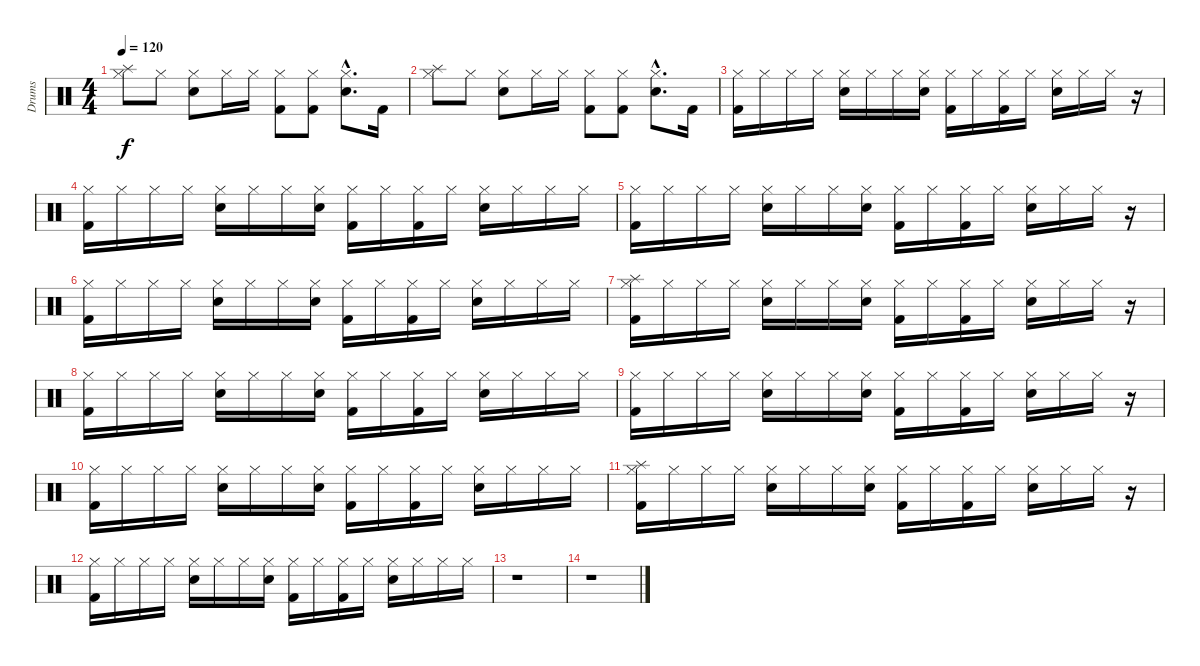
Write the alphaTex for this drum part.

\track ("Drums" "Drums") {instrument percussion}
\staff {score}
\articulation defaults
\ts (4 4)
\tempo 120
\clef neutral
\ks c
("Splash (hit)" "Hi-Hat (closed)").8{dy f} "Hi-Hat (closed)".8 ("Snare (hit) 2" "Hi-Hat (closed)").8 "Hi-Hat (closed)".16 "Hi-Hat (closed)".16 ("Kick (hit) 2" "Hi-Hat (closed)").8 ("Kick (hit) 2" "Hi-Hat (closed)").8 ("Snare (hit) 2"{hac} "Hi-Hat (closed)"{hac}).8{d} "Kick (hit) 2".16 |
("Splash (hit)" "Hi-Hat (closed)").8 "Hi-Hat (closed)".8 ("Snare (hit) 2" "Hi-Hat (closed)").8 "Hi-Hat (closed)".16 "Hi-Hat (closed)".16 ("Kick (hit) 2" "Hi-Hat (closed)").8 ("Kick (hit) 2" "Hi-Hat (closed)").8 ("Snare (hit) 2"{hac} "Hi-Hat (closed)"{hac}).8{d} "Kick (hit) 2".16 |
("Hi-Hat (closed)" "Kick (hit) 2").16 "Hi-Hat (closed)".16 "Hi-Hat (closed)".16 "Hi-Hat (closed)".16 ("Hi-Hat (closed)" "Snare (hit) 2").16 "Hi-Hat (closed)".16 "Hi-Hat (closed)".16 ("Hi-Hat (closed)" "Snare (hit) 2").16 ("Hi-Hat (closed)" "Kick (hit) 2").16 "Hi-Hat (closed)".16 ("Hi-Hat (closed)" "Kick (hit) 2").16 "Hi-Hat (closed)".16 ("Hi-Hat (closed)" "Snare (hit) 2").16 "Hi-Hat (closed)".16 "Hi-Hat (closed)".16 r.16 |
("Hi-Hat (closed)" "Kick (hit) 2").16 "Hi-Hat (closed)".16 "Hi-Hat (closed)".16 "Hi-Hat (closed)".16 ("Hi-Hat (closed)" "Snare (hit) 2").16 "Hi-Hat (closed)".16 "Hi-Hat (closed)".16 ("Hi-Hat (closed)" "Snare (hit) 2").16 ("Hi-Hat (closed)" "Kick (hit) 2").16 "Hi-Hat (closed)".16 ("Hi-Hat (closed)" "Kick (hit) 2").16 "Hi-Hat (closed)".16 ("Hi-Hat (closed)" "Snare (hit) 2").16 "Hi-Hat (closed)".16 "Hi-Hat (closed)".16 "Hi-Hat (closed)".16 |
("Hi-Hat (closed)" "Kick (hit) 2").16 "Hi-Hat (closed)".16 "Hi-Hat (closed)".16 "Hi-Hat (closed)".16 ("Hi-Hat (closed)" "Snare (hit) 2").16 "Hi-Hat (closed)".16 "Hi-Hat (closed)".16 ("Hi-Hat (closed)" "Snare (hit) 2").16 ("Hi-Hat (closed)" "Kick (hit) 2").16 "Hi-Hat (closed)".16 ("Hi-Hat (closed)" "Kick (hit) 2").16 "Hi-Hat (closed)".16 ("Hi-Hat (closed)" "Snare (hit) 2").16 "Hi-Hat (closed)".16 "Hi-Hat (closed)".16 r.16 |
("Hi-Hat (closed)" "Kick (hit) 2").16 "Hi-Hat (closed)".16 "Hi-Hat (closed)".16 "Hi-Hat (closed)".16 ("Hi-Hat (closed)" "Snare (hit) 2").16 "Hi-Hat (closed)".16 "Hi-Hat (closed)".16 ("Hi-Hat (closed)" "Snare (hit) 2").16 ("Hi-Hat (closed)" "Kick (hit) 2").16 "Hi-Hat (closed)".16 ("Hi-Hat (closed)" "Kick (hit) 2").16 "Hi-Hat (closed)".16 ("Hi-Hat (closed)" "Snare (hit) 2").16 "Hi-Hat (closed)".16 "Hi-Hat (closed)".16 "Hi-Hat (closed)".16 |
("Hi-Hat (closed)" "Kick (hit) 2" "Splash (hit)").16 "Hi-Hat (closed)".16 "Hi-Hat (closed)".16 "Hi-Hat (closed)".16 ("Hi-Hat (closed)" "Snare (hit) 2").16 "Hi-Hat (closed)".16 "Hi-Hat (closed)".16 ("Hi-Hat (closed)" "Snare (hit) 2").16 ("Hi-Hat (closed)" "Kick (hit) 2").16 "Hi-Hat (closed)".16 ("Hi-Hat (closed)" "Kick (hit) 2").16 "Hi-Hat (closed)".16 ("Hi-Hat (closed)" "Snare (hit) 2").16 "Hi-Hat (closed)".16 "Hi-Hat (closed)".16 r.16 |
("Hi-Hat (closed)" "Kick (hit) 2").16 "Hi-Hat (closed)".16 "Hi-Hat (closed)".16 "Hi-Hat (closed)".16 ("Hi-Hat (closed)" "Snare (hit) 2").16 "Hi-Hat (closed)".16 "Hi-Hat (closed)".16 ("Hi-Hat (closed)" "Snare (hit) 2").16 ("Hi-Hat (closed)" "Kick (hit) 2").16 "Hi-Hat (closed)".16 ("Hi-Hat (closed)" "Kick (hit) 2").16 "Hi-Hat (closed)".16 ("Hi-Hat (closed)" "Snare (hit) 2").16 "Hi-Hat (closed)".16 "Hi-Hat (closed)".16 "Hi-Hat (closed)".16 |
("Hi-Hat (closed)" "Kick (hit) 2").16 "Hi-Hat (closed)".16 "Hi-Hat (closed)".16 "Hi-Hat (closed)".16 ("Hi-Hat (closed)" "Snare (hit) 2").16 "Hi-Hat (closed)".16 "Hi-Hat (closed)".16 ("Hi-Hat (closed)" "Snare (hit) 2").16 ("Hi-Hat (closed)" "Kick (hit) 2").16 "Hi-Hat (closed)".16 ("Hi-Hat (closed)" "Kick (hit) 2").16 "Hi-Hat (closed)".16 ("Hi-Hat (closed)" "Snare (hit) 2").16 "Hi-Hat (closed)".16 "Hi-Hat (closed)".16 r.16 |
("Hi-Hat (closed)" "Kick (hit) 2").16 "Hi-Hat (closed)".16 "Hi-Hat (closed)".16 "Hi-Hat (closed)".16 ("Hi-Hat (closed)" "Snare (hit) 2").16 "Hi-Hat (closed)".16 "Hi-Hat (closed)".16 ("Hi-Hat (closed)" "Snare (hit) 2").16 ("Hi-Hat (closed)" "Kick (hit) 2").16 "Hi-Hat (closed)".16 ("Hi-Hat (closed)" "Kick (hit) 2").16 "Hi-Hat (closed)".16 ("Hi-Hat (closed)" "Snare (hit) 2").16 "Hi-Hat (closed)".16 "Hi-Hat (closed)".16 "Hi-Hat (closed)".16 |
("Hi-Hat (closed)" "Kick (hit) 2" "Splash (hit)").16 "Hi-Hat (closed)".16 "Hi-Hat (closed)".16 "Hi-Hat (closed)".16 ("Hi-Hat (closed)" "Snare (hit) 2").16 "Hi-Hat (closed)".16 "Hi-Hat (closed)".16 ("Hi-Hat (closed)" "Snare (hit) 2").16 ("Hi-Hat (closed)" "Kick (hit) 2").16 "Hi-Hat (closed)".16 ("Hi-Hat (closed)" "Kick (hit) 2").16 "Hi-Hat (closed)".16 ("Hi-Hat (closed)" "Snare (hit) 2").16 "Hi-Hat (closed)".16 "Hi-Hat (closed)".16 r.16 |
("Hi-Hat (closed)" "Kick (hit) 2").16 "Hi-Hat (closed)".16 "Hi-Hat (closed)".16 "Hi-Hat (closed)".16 ("Hi-Hat (closed)" "Snare (hit) 2").16 "Hi-Hat (closed)".16 "Hi-Hat (closed)".16 ("Hi-Hat (closed)" "Snare (hit) 2").16 ("Hi-Hat (closed)" "Kick (hit) 2").16 "Hi-Hat (closed)".16 ("Hi-Hat (closed)" "Kick (hit) 2").16 "Hi-Hat (closed)".16 ("Hi-Hat (closed)" "Snare (hit) 2").16 "Hi-Hat (closed)".16 "Hi-Hat (closed)".16 "Hi-Hat (closed)".16 |
r.1 |
r.1
